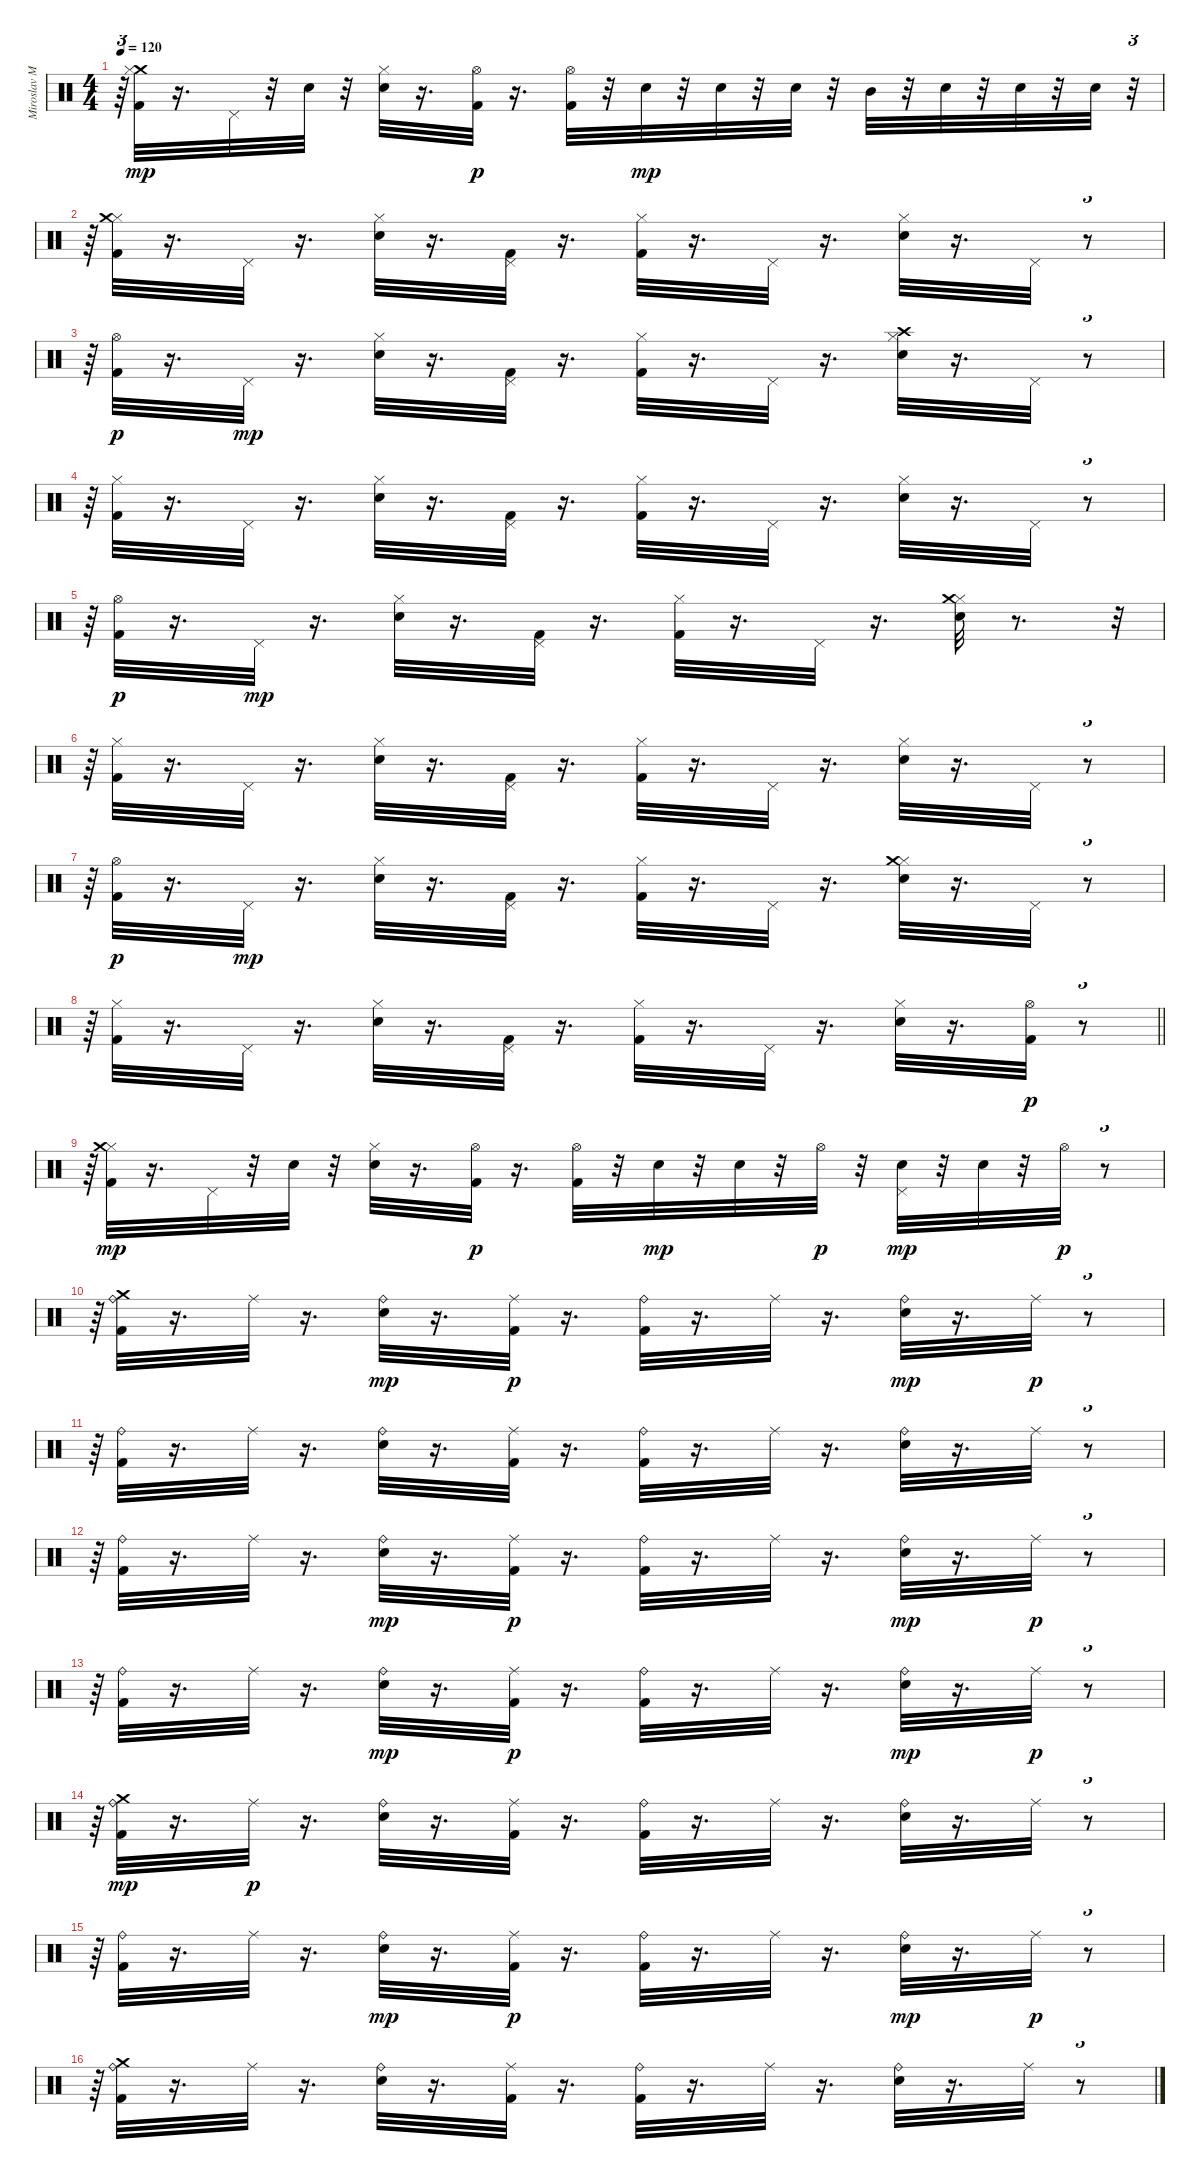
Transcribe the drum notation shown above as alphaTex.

\track ("Miroslav Milatovic-Vicko-bubnjevi" "Miroslav M") {instrument percussion}
\staff {score}
\articulation defaults
\ts (4 4)
\tempo 120
\clef neutral
\ks c
r.64{tu (3 2) dy p} ("Crash medium (hit)" "Hi-Hat (closed)" "Kick (hit) 2").32{dy mp} r.16{d} "Pedal Hi-Hat (hit)".32 r.32 "Electric Snare (hit)".32 r.32 ("Hi-Hat (closed)" "Electric Snare (hit)").32 r.16{d} ("Hi-Hat (open)" "Kick (hit) 2").32{dy p} r.16{d} ("Hi-Hat (open)" "Kick (hit) 2").32 r.32 "Electric Snare (hit)".32{dy mp} r.32 "Electric Snare (hit)".32 r.32 "Electric Snare (hit)".32 r.32 "Mid Tom (hit)".32 r.32 "Electric Snare (hit)".32 r.32 "Electric Snare (hit)".32 r.32 "Electric Snare (hit)".32 r.32{tu (3 2)} |
r.64{tu (3 2)} ("Hi-Hat (closed)" "Kick (hit) 2" "Crash medium (hit)").32 r.16{d} "Pedal Hi-Hat (hit)".32 r.16{d} ("Hi-Hat (closed)" "Electric Snare (hit)").32 r.16{d} ("Pedal Hi-Hat (hit)" "Kick (hit) 2").32 r.16{d} ("Hi-Hat (closed)" "Kick (hit) 2").32 r.16{d} "Pedal Hi-Hat (hit)".32 r.16{d} ("Hi-Hat (closed)" "Electric Snare (hit)").32 r.16{d} "Pedal Hi-Hat (hit)".32 r.8{tu (3 2)} |
r.64{tu (3 2)} ("Kick (hit) 2" "Hi-Hat (open)").32{dy p} r.16{d} "Pedal Hi-Hat (hit)".32{dy mp} r.16{d} ("Electric Snare (hit)" "Hi-Hat (closed)").32 r.16{d} ("Kick (hit) 2" "Pedal Hi-Hat (hit)").32 r.16{d} ("Kick (hit) 2" "Hi-Hat (closed)").32 r.16{d} "Pedal Hi-Hat (hit)".32 r.16{d} ("Electric Snare (hit)" "Hi-Hat (closed)" "Crash high (hit)").32 r.16{d} "Pedal Hi-Hat (hit)".32 r.8{tu (3 2)} |
r.64{tu (3 2)} ("Kick (hit) 2" "Hi-Hat (closed)").32 r.16{d} "Pedal Hi-Hat (hit)".32 r.16{d} ("Electric Snare (hit)" "Hi-Hat (closed)").32 r.16{d} ("Kick (hit) 2" "Pedal Hi-Hat (hit)").32 r.16{d} ("Kick (hit) 2" "Hi-Hat (closed)").32 r.16{d} "Pedal Hi-Hat (hit)".32 r.16{d} ("Electric Snare (hit)" "Hi-Hat (closed)").32 r.16{d} "Pedal Hi-Hat (hit)".32 r.8{tu (3 2)} |
r.64{tu (3 2)} ("Kick (hit) 2" "Hi-Hat (open)").32{dy p} r.16{d} "Pedal Hi-Hat (hit)".32{dy mp} r.16{d} ("Hi-Hat (closed)" "Electric Snare (hit)").32 r.16{d} ("Pedal Hi-Hat (hit)" "Kick (hit) 2").32 r.16{d} ("Hi-Hat (closed)" "Kick (hit) 2").32 r.16{d} "Pedal Hi-Hat (hit)".32 r.16{d} ("Hi-Hat (closed)" "Electric Snare (hit)" "Crash medium (hit)").32 r.8{d} r.32{tu (3 2)} |
r.64{tu (3 2)} ("Kick (hit) 2" "Hi-Hat (closed)").32 r.16{d} "Pedal Hi-Hat (hit)".32 r.16{d} ("Electric Snare (hit)" "Hi-Hat (closed)").32 r.16{d} ("Kick (hit) 2" "Pedal Hi-Hat (hit)").32 r.16{d} ("Kick (hit) 2" "Hi-Hat (closed)").32 r.16{d} "Pedal Hi-Hat (hit)".32 r.16{d} ("Electric Snare (hit)" "Hi-Hat (closed)").32 r.16{d} "Pedal Hi-Hat (hit)".32 r.8{tu (3 2)} |
r.64{tu (3 2)} ("Kick (hit) 2" "Hi-Hat (open)").32{dy p} r.16{d} "Pedal Hi-Hat (hit)".32{dy mp} r.16{d} ("Hi-Hat (closed)" "Electric Snare (hit)").32 r.16{d} ("Pedal Hi-Hat (hit)" "Kick (hit) 2").32 r.16{d} ("Hi-Hat (closed)" "Kick (hit) 2").32 r.16{d} "Pedal Hi-Hat (hit)".32 r.16{d} ("Hi-Hat (closed)" "Electric Snare (hit)" "Crash medium (hit)").32 r.16{d} "Pedal Hi-Hat (hit)".32 r.8{tu (3 2)} |
\barLineRight lightlight
r.64{tu (3 2)} ("Hi-Hat (closed)" "Kick (hit) 2").32 r.16{d} "Pedal Hi-Hat (hit)".32 r.16{d} ("Hi-Hat (closed)" "Electric Snare (hit)").32 r.16{d} ("Pedal Hi-Hat (hit)" "Kick (hit) 2").32 r.16{d} ("Hi-Hat (closed)" "Kick (hit) 2").32 r.16{d} "Pedal Hi-Hat (hit)".32 r.16{d} ("Hi-Hat (closed)" "Electric Snare (hit)").32 r.16{d} ("Kick (hit) 2" "Hi-Hat (open)").32{dy p} r.8{tu (3 2)} |
r.64{tu (3 2)} ("Kick (hit) 2" "Hi-Hat (closed)" "Crash medium (hit)").32{dy mp} r.16{d} "Pedal Hi-Hat (hit)".32 r.32 "Electric Snare (hit)".32 r.32 ("Electric Snare (hit)" "Hi-Hat (closed)").32 r.16{d} ("Kick (hit) 2" "Hi-Hat (open)").32{dy p} r.16{d} ("Kick (hit) 2" "Hi-Hat (open)").32 r.32 "Electric Snare (hit)".32{dy mp} r.32 "Electric Snare (hit)".32 r.32 "Hi-Hat (open)".32{dy p} r.32 ("Pedal Hi-Hat (hit)" "Electric Snare (hit)").32{dy mp} r.32 "Electric Snare (hit)".32 r.32 "Hi-Hat (open)".32{dy p} r.8{tu (3 2)} |
r.64{tu (3 2)} ("Crash medium (hit)" "Ride (bell)" "Kick (hit) 2").32 r.16{d} "Ride (middle)".32 r.16{d} ("Ride (bell)" "Electric Snare (hit)").32{dy mp} r.16{d} ("Ride (middle)" "Kick (hit) 2").32{dy p} r.16{d} ("Ride (bell)" "Kick (hit) 2").32 r.16{d} "Ride (middle)".32 r.16{d} ("Ride (bell)" "Electric Snare (hit)").32{dy mp} r.16{d} "Ride (middle)".32{dy p} r.8{tu (3 2)} |
r.64{tu (3 2)} ("Kick (hit) 2" "Ride (bell)").32 r.16{d} "Ride (middle)".32 r.16{d} ("Electric Snare (hit)" "Ride (bell)").32 r.16{d} ("Kick (hit) 2" "Ride (middle)").32 r.16{d} ("Kick (hit) 2" "Ride (bell)").32 r.16{d} "Ride (middle)".32 r.16{d} ("Electric Snare (hit)" "Ride (bell)").32 r.16{d} "Ride (middle)".32 r.8{tu (3 2)} |
r.64{tu (3 2)} ("Ride (bell)" "Kick (hit) 2").32 r.16{d} "Ride (middle)".32 r.16{d} ("Ride (bell)" "Electric Snare (hit)").32{dy mp} r.16{d} ("Ride (middle)" "Kick (hit) 2").32{dy p} r.16{d} ("Ride (bell)" "Kick (hit) 2").32 r.16{d} "Ride (middle)".32 r.16{d} ("Ride (bell)" "Electric Snare (hit)").32{dy mp} r.16{d} "Ride (middle)".32{dy p} r.8{tu (3 2)} |
r.64{tu (3 2)} ("Ride (bell)" "Kick (hit) 2").32 r.16{d} "Ride (middle)".32 r.16{d} ("Ride (bell)" "Electric Snare (hit)").32{dy mp} r.16{d} ("Ride (middle)" "Kick (hit) 2").32{dy p} r.16{d} ("Ride (bell)" "Kick (hit) 2").32 r.16{d} "Ride (middle)".32 r.16{d} ("Ride (bell)" "Electric Snare (hit)").32{dy mp} r.16{d} "Ride (middle)".32{dy p} r.8{tu (3 2)} |
r.64{tu (3 2)} ("Kick (hit) 2" "Ride (bell)" "Crash medium (hit)").32{dy mp} r.16{d} "Ride (middle)".32{dy p} r.16{d} ("Electric Snare (hit)" "Ride (bell)").32 r.16{d} ("Kick (hit) 2" "Ride (middle)").32 r.16{d} ("Kick (hit) 2" "Ride (bell)").32 r.16{d} "Ride (middle)".32 r.16{d} ("Electric Snare (hit)" "Ride (bell)").32 r.16{d} "Ride (middle)".32 r.8{tu (3 2)} |
r.64{tu (3 2)} ("Ride (bell)" "Kick (hit) 2").32 r.16{d} "Ride (middle)".32 r.16{d} ("Ride (bell)" "Electric Snare (hit)").32{dy mp} r.16{d} ("Ride (middle)" "Kick (hit) 2").32{dy p} r.16{d} ("Ride (bell)" "Kick (hit) 2").32 r.16{d} "Ride (middle)".32 r.16{d} ("Ride (bell)" "Electric Snare (hit)").32{dy mp} r.16{d} "Ride (middle)".32{dy p} r.8{tu (3 2)} |
r.64{tu (3 2)} ("Crash medium (hit)" "Kick (hit) 2" "Ride (bell)").32 r.16{d} "Ride (middle)".32 r.16{d} ("Electric Snare (hit)" "Ride (bell)").32 r.16{d} ("Kick (hit) 2" "Ride (middle)").32 r.16{d} ("Kick (hit) 2" "Ride (bell)").32 r.16{d} "Ride (middle)".32 r.16{d} ("Electric Snare (hit)" "Ride (bell)").32 r.16{d} "Ride (middle)".32 r.8{tu (3 2)}
